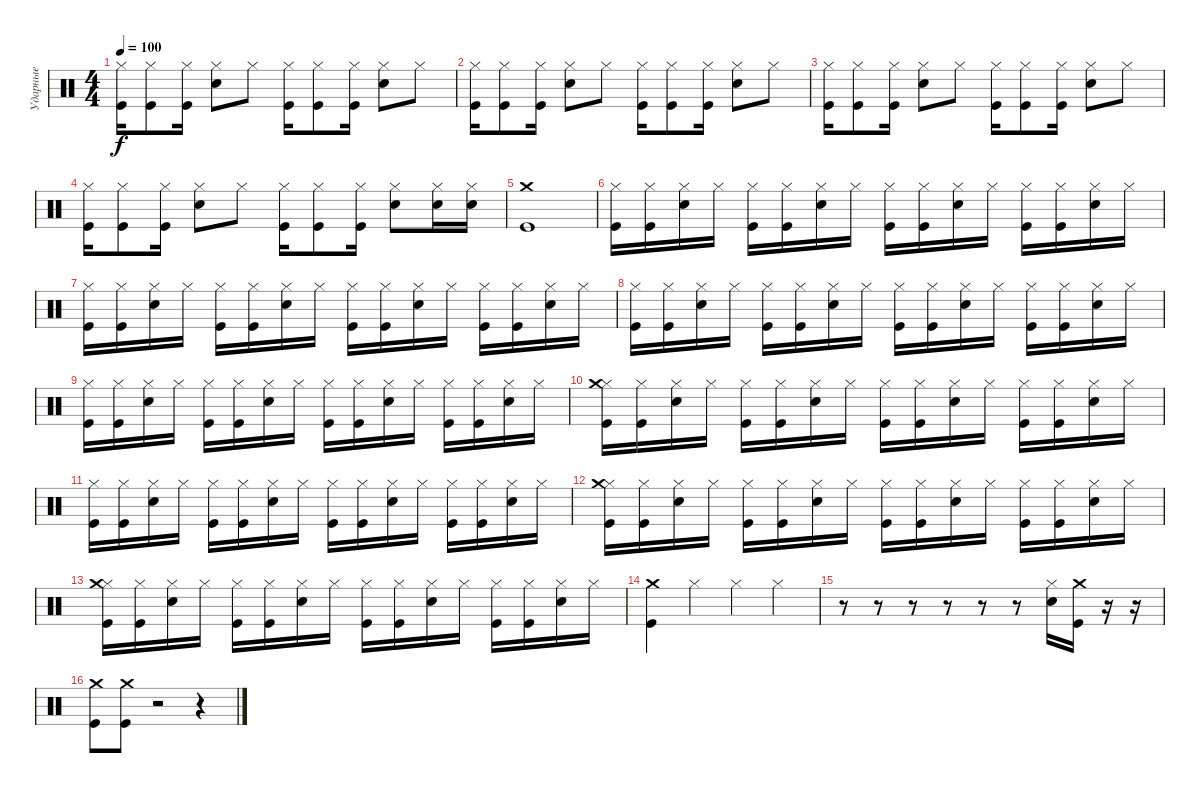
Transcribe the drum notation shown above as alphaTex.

\track ("Ударные" "Ударные") {instrument percussion}
\staff {score}
\articulation defaults
\ts (4 4)
\tempo 100
\clef neutral
\ks c
("Hi-Hat (closed)" "Kick (hit)").16{dy f} ("Hi-Hat (closed)" "Kick (hit)").8 ("Hi-Hat (closed)" "Kick (hit)").16 ("Hi-Hat (closed)" "Snare (hit) 2").8 "Hi-Hat (closed)".8 ("Hi-Hat (closed)" "Kick (hit)").16 ("Hi-Hat (closed)" "Kick (hit)").8 ("Hi-Hat (closed)" "Kick (hit)").16 ("Hi-Hat (closed)" "Snare (hit) 2").8 "Hi-Hat (closed)".8 |
("Hi-Hat (closed)" "Kick (hit)").16 ("Hi-Hat (closed)" "Kick (hit)").8 ("Hi-Hat (closed)" "Kick (hit)").16 ("Hi-Hat (closed)" "Snare (hit) 2").8 "Hi-Hat (closed)".8 ("Hi-Hat (closed)" "Kick (hit)").16 ("Hi-Hat (closed)" "Kick (hit)").8 ("Hi-Hat (closed)" "Kick (hit)").16 ("Hi-Hat (closed)" "Snare (hit) 2").8 "Hi-Hat (closed)".8 |
("Hi-Hat (closed)" "Kick (hit)").16 ("Hi-Hat (closed)" "Kick (hit)").8 ("Hi-Hat (closed)" "Kick (hit)").16 ("Hi-Hat (closed)" "Snare (hit) 2").8 "Hi-Hat (closed)".8 ("Hi-Hat (closed)" "Kick (hit)").16 ("Hi-Hat (closed)" "Kick (hit)").8 ("Hi-Hat (closed)" "Kick (hit)").16 ("Hi-Hat (closed)" "Snare (hit) 2").8 "Hi-Hat (closed)".8 |
("Hi-Hat (closed)" "Kick (hit)").16 ("Hi-Hat (closed)" "Kick (hit)").8 ("Hi-Hat (closed)" "Kick (hit)").16 ("Hi-Hat (closed)" "Snare (hit) 2").8 "Hi-Hat (closed)".8 ("Hi-Hat (closed)" "Kick (hit)").16 ("Hi-Hat (closed)" "Kick (hit)").8 ("Hi-Hat (closed)" "Kick (hit)").16 ("Hi-Hat (closed)" "Snare (hit) 2").8 ("Hi-Hat (closed)" "Snare (hit) 2").16 ("Hi-Hat (closed)" "Snare (hit) 2").16 |
("Crash medium (hit)" "Kick (hit)").1 |
("Kick (hit)" "Hi-Hat (closed)").16 ("Kick (hit)" "Hi-Hat (closed)").16 ("Snare (hit) 2" "Hi-Hat (closed)").16 "Hi-Hat (closed)".16 ("Kick (hit)" "Hi-Hat (closed)").16 ("Kick (hit)" "Hi-Hat (closed)").16 ("Snare (hit) 2" "Hi-Hat (closed)").16 "Hi-Hat (closed)".16 ("Kick (hit)" "Hi-Hat (closed)").16 ("Kick (hit)" "Hi-Hat (closed)").16 ("Snare (hit) 2" "Hi-Hat (closed)").16 "Hi-Hat (closed)".16 ("Kick (hit)" "Hi-Hat (closed)").16 ("Kick (hit)" "Hi-Hat (closed)").16 ("Snare (hit) 2" "Hi-Hat (closed)").16 "Hi-Hat (closed)".16 |
("Kick (hit)" "Hi-Hat (closed)").16 ("Kick (hit)" "Hi-Hat (closed)").16 ("Snare (hit) 2" "Hi-Hat (closed)").16 "Hi-Hat (closed)".16 ("Kick (hit)" "Hi-Hat (closed)").16 ("Kick (hit)" "Hi-Hat (closed)").16 ("Snare (hit) 2" "Hi-Hat (closed)").16 "Hi-Hat (closed)".16 ("Kick (hit)" "Hi-Hat (closed)").16 ("Kick (hit)" "Hi-Hat (closed)").16 ("Snare (hit) 2" "Hi-Hat (closed)").16 "Hi-Hat (closed)".16 ("Kick (hit)" "Hi-Hat (closed)").16 ("Kick (hit)" "Hi-Hat (closed)").16 ("Snare (hit) 2" "Hi-Hat (closed)").16 "Hi-Hat (closed)".16 |
("Kick (hit)" "Hi-Hat (closed)").16 ("Kick (hit)" "Hi-Hat (closed)").16 ("Snare (hit) 2" "Hi-Hat (closed)").16 "Hi-Hat (closed)".16 ("Kick (hit)" "Hi-Hat (closed)").16 ("Kick (hit)" "Hi-Hat (closed)").16 ("Snare (hit) 2" "Hi-Hat (closed)").16 "Hi-Hat (closed)".16 ("Kick (hit)" "Hi-Hat (closed)").16 ("Kick (hit)" "Hi-Hat (closed)").16 ("Snare (hit) 2" "Hi-Hat (closed)").16 "Hi-Hat (closed)".16 ("Kick (hit)" "Hi-Hat (closed)").16 ("Kick (hit)" "Hi-Hat (closed)").16 ("Snare (hit) 2" "Hi-Hat (closed)").16 "Hi-Hat (closed)".16 |
("Kick (hit)" "Hi-Hat (closed)").16 ("Kick (hit)" "Hi-Hat (closed)").16 ("Snare (hit) 2" "Hi-Hat (closed)").16 "Hi-Hat (closed)".16 ("Kick (hit)" "Hi-Hat (closed)").16 ("Kick (hit)" "Hi-Hat (closed)").16 ("Snare (hit) 2" "Hi-Hat (closed)").16 "Hi-Hat (closed)".16 ("Kick (hit)" "Hi-Hat (closed)").16 ("Kick (hit)" "Hi-Hat (closed)").16 ("Snare (hit) 2" "Hi-Hat (closed)").16 "Hi-Hat (closed)".16 ("Kick (hit)" "Hi-Hat (closed)").16 ("Kick (hit)" "Hi-Hat (closed)").16 ("Snare (hit) 2" "Hi-Hat (closed)").16 "Hi-Hat (closed)".16 |
("Kick (hit)" "Hi-Hat (closed)" "Crash medium (hit)").16 ("Kick (hit)" "Hi-Hat (closed)").16 ("Snare (hit) 2" "Hi-Hat (closed)").16 "Hi-Hat (closed)".16 ("Kick (hit)" "Hi-Hat (closed)").16 ("Kick (hit)" "Hi-Hat (closed)").16 ("Snare (hit) 2" "Hi-Hat (closed)").16 "Hi-Hat (closed)".16 ("Kick (hit)" "Hi-Hat (closed)").16 ("Kick (hit)" "Hi-Hat (closed)").16 ("Snare (hit) 2" "Hi-Hat (closed)").16 "Hi-Hat (closed)".16 ("Kick (hit)" "Hi-Hat (closed)").16 ("Kick (hit)" "Hi-Hat (closed)").16 ("Snare (hit) 2" "Hi-Hat (closed)").16 "Hi-Hat (closed)".16 |
("Kick (hit)" "Hi-Hat (closed)").16 ("Kick (hit)" "Hi-Hat (closed)").16 ("Snare (hit) 2" "Hi-Hat (closed)").16 "Hi-Hat (closed)".16 ("Kick (hit)" "Hi-Hat (closed)").16 ("Kick (hit)" "Hi-Hat (closed)").16 ("Snare (hit) 2" "Hi-Hat (closed)").16 "Hi-Hat (closed)".16 ("Kick (hit)" "Hi-Hat (closed)").16 ("Kick (hit)" "Hi-Hat (closed)").16 ("Snare (hit) 2" "Hi-Hat (closed)").16 "Hi-Hat (closed)".16 ("Kick (hit)" "Hi-Hat (closed)").16 ("Kick (hit)" "Hi-Hat (closed)").16 ("Snare (hit) 2" "Hi-Hat (closed)").16 "Hi-Hat (closed)".16 |
("Kick (hit)" "Hi-Hat (closed)" "Crash medium (hit)").16 ("Kick (hit)" "Hi-Hat (closed)").16 ("Snare (hit) 2" "Hi-Hat (closed)").16 "Hi-Hat (closed)".16 ("Kick (hit)" "Hi-Hat (closed)").16 ("Kick (hit)" "Hi-Hat (closed)").16 ("Snare (hit) 2" "Hi-Hat (closed)").16 "Hi-Hat (closed)".16 ("Kick (hit)" "Hi-Hat (closed)").16 ("Kick (hit)" "Hi-Hat (closed)").16 ("Snare (hit) 2" "Hi-Hat (closed)").16 "Hi-Hat (closed)".16 ("Kick (hit)" "Hi-Hat (closed)").16 ("Kick (hit)" "Hi-Hat (closed)").16 ("Snare (hit) 2" "Hi-Hat (closed)").16 "Hi-Hat (closed)".16 |
("Kick (hit)" "Hi-Hat (closed)" "Crash medium (hit)").16 ("Kick (hit)" "Hi-Hat (closed)").16 ("Snare (hit) 2" "Hi-Hat (closed)").16 "Hi-Hat (closed)".16 ("Kick (hit)" "Hi-Hat (closed)").16 ("Kick (hit)" "Hi-Hat (closed)").16 ("Snare (hit) 2" "Hi-Hat (closed)").16 "Hi-Hat (closed)".16 ("Kick (hit)" "Hi-Hat (closed)").16 ("Kick (hit)" "Hi-Hat (closed)").16 ("Snare (hit) 2" "Hi-Hat (closed)").16 "Hi-Hat (closed)".16 ("Kick (hit)" "Hi-Hat (closed)").16 ("Kick (hit)" "Hi-Hat (closed)").16 ("Snare (hit) 2" "Hi-Hat (closed)").16 "Hi-Hat (closed)".16 |
("Kick (hit)" "Crash medium (hit)").4 "Hi-Hat (closed)".4 "Hi-Hat (closed)".4 "Hi-Hat (closed)".4 |
r.8 r.8 r.8 r.8 r.8 r.8 ("Snare (hit) 2" "Hi-Hat (closed)").16 ("Kick (hit)" "Crash medium (hit)").16 r.16 r.16 |
("Kick (hit)" "Crash medium (hit)").8 ("Kick (hit)" "Crash medium (hit)").8 r.2 r.4
